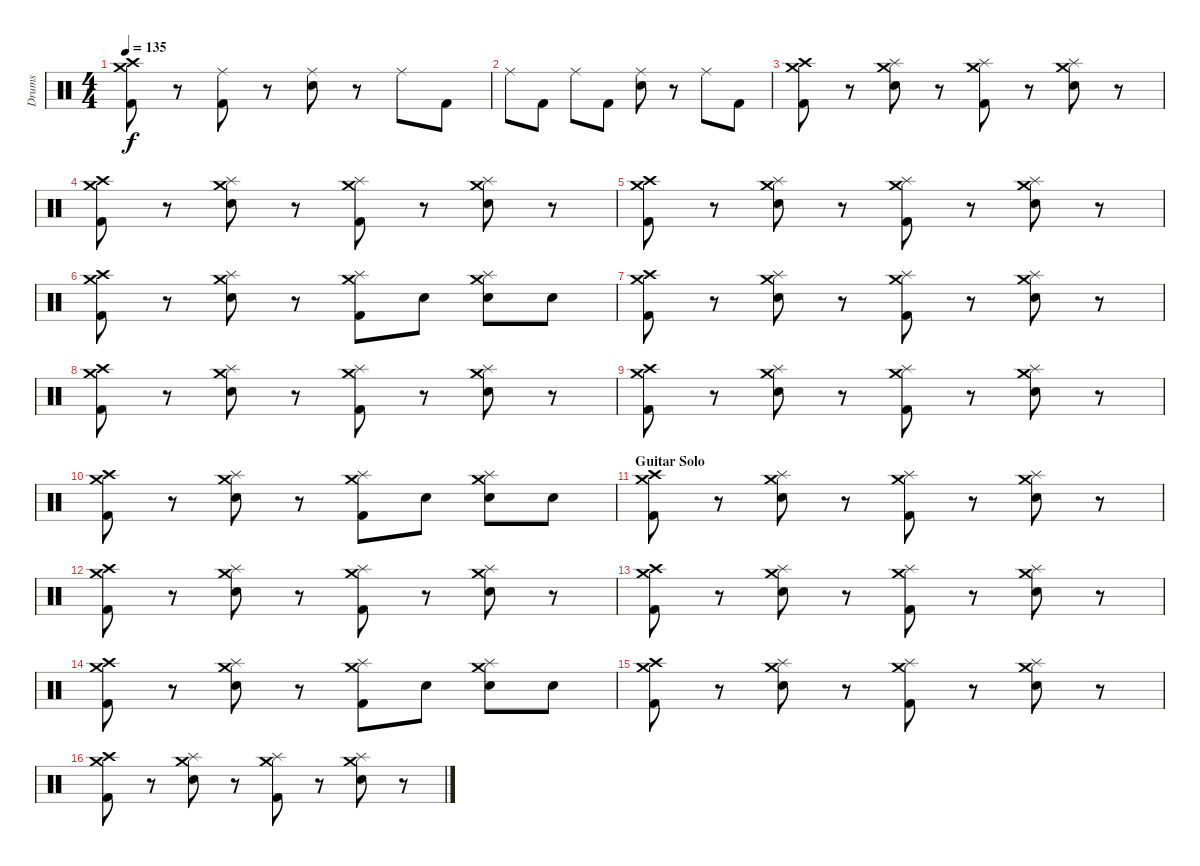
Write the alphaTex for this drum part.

\track ("Drums" "Drums") {instrument percussion}
\staff {score}
\articulation defaults
\ts (4 4)
\tempo 135
\clef neutral
\ks c
("Crash medium (hit)" "Crash high (hit)" "Kick (hit) 2").8{dy f} r.8 ("Ride (middle)" "Kick (hit) 2").8 r.8 ("Ride (middle)" "Snare (hit) 2").8 r.8 "Ride (middle)".8 "Kick (hit) 2".8 |
"Ride (middle)".8 "Kick (hit) 2".8 "Ride (middle)".8 "Kick (hit) 2".8 ("Ride (middle)" "Snare (hit) 2").8 r.8 "Ride (middle)".8 "Kick (hit) 2".8 |
("Crash medium (hit)" "Crash high (hit)" "Kick (hit) 2").8 r.8 ("Splash (hit)" "Crash medium (hit)" "Snare (hit) 2").8 r.8 ("Splash (hit)" "Crash medium (hit)" "Kick (hit) 2").8 r.8 ("Splash (hit)" "Crash medium (hit)" "Snare (hit) 2").8 r.8 |
("Crash medium (hit)" "Crash high (hit)" "Kick (hit) 2").8 r.8 ("Splash (hit)" "Crash medium (hit)" "Snare (hit) 2").8 r.8 ("Splash (hit)" "Crash medium (hit)" "Kick (hit) 2").8 r.8 ("Splash (hit)" "Crash medium (hit)" "Snare (hit) 2").8 r.8 |
("Crash medium (hit)" "Crash high (hit)" "Kick (hit) 2").8 r.8 ("Splash (hit)" "Crash medium (hit)" "Snare (hit) 2").8 r.8 ("Splash (hit)" "Crash medium (hit)" "Kick (hit) 2").8 r.8 ("Splash (hit)" "Crash medium (hit)" "Snare (hit) 2").8 r.8 |
("Crash medium (hit)" "Crash high (hit)" "Kick (hit) 2").8 r.8 ("Splash (hit)" "Crash medium (hit)" "Snare (hit) 2").8 r.8 ("Splash (hit)" "Crash medium (hit)" "Kick (hit) 2").8 "Snare (hit) 2".8 ("Splash (hit)" "Crash medium (hit)" "Snare (hit) 2").8 "Snare (hit) 2".8 |
("Crash medium (hit)" "Crash high (hit)" "Kick (hit) 2").8 r.8 ("Splash (hit)" "Crash medium (hit)" "Snare (hit) 2").8 r.8 ("Splash (hit)" "Crash medium (hit)" "Kick (hit) 2").8 r.8 ("Splash (hit)" "Crash medium (hit)" "Snare (hit) 2").8 r.8 |
("Crash medium (hit)" "Crash high (hit)" "Kick (hit) 2").8 r.8 ("Splash (hit)" "Crash medium (hit)" "Snare (hit) 2").8 r.8 ("Splash (hit)" "Crash medium (hit)" "Kick (hit) 2").8 r.8 ("Splash (hit)" "Crash medium (hit)" "Snare (hit) 2").8 r.8 |
("Crash medium (hit)" "Crash high (hit)" "Kick (hit) 2").8 r.8 ("Splash (hit)" "Crash medium (hit)" "Snare (hit) 2").8 r.8 ("Splash (hit)" "Crash medium (hit)" "Kick (hit) 2").8 r.8 ("Splash (hit)" "Crash medium (hit)" "Snare (hit) 2").8 r.8 |
("Crash medium (hit)" "Crash high (hit)" "Kick (hit) 2").8 r.8 ("Splash (hit)" "Crash medium (hit)" "Snare (hit) 2").8 r.8 ("Splash (hit)" "Crash medium (hit)" "Kick (hit) 2").8 "Snare (hit) 2".8 ("Splash (hit)" "Crash medium (hit)" "Snare (hit) 2").8 "Snare (hit) 2".8 |
\section ("" "Guitar Solo")
("Crash medium (hit)" "Crash high (hit)" "Kick (hit) 2").8 r.8 ("Splash (hit)" "Crash medium (hit)" "Snare (hit) 2").8 r.8 ("Splash (hit)" "Crash medium (hit)" "Kick (hit) 2").8 r.8 ("Splash (hit)" "Crash medium (hit)" "Snare (hit) 2").8 r.8 |
("Crash medium (hit)" "Crash high (hit)" "Kick (hit) 2").8 r.8 ("Splash (hit)" "Crash medium (hit)" "Snare (hit) 2").8 r.8 ("Splash (hit)" "Crash medium (hit)" "Kick (hit) 2").8 r.8 ("Splash (hit)" "Crash medium (hit)" "Snare (hit) 2").8 r.8 |
("Crash medium (hit)" "Crash high (hit)" "Kick (hit) 2").8 r.8 ("Splash (hit)" "Crash medium (hit)" "Snare (hit) 2").8 r.8 ("Splash (hit)" "Crash medium (hit)" "Kick (hit) 2").8 r.8 ("Splash (hit)" "Crash medium (hit)" "Snare (hit) 2").8 r.8 |
("Crash medium (hit)" "Crash high (hit)" "Kick (hit) 2").8 r.8 ("Splash (hit)" "Crash medium (hit)" "Snare (hit) 2").8 r.8 ("Splash (hit)" "Crash medium (hit)" "Kick (hit) 2").8 "Snare (hit) 2".8 ("Splash (hit)" "Crash medium (hit)" "Snare (hit) 2").8 "Snare (hit) 2".8 |
("Crash medium (hit)" "Crash high (hit)" "Kick (hit) 2").8 r.8 ("Splash (hit)" "Crash medium (hit)" "Snare (hit) 2").8 r.8 ("Splash (hit)" "Crash medium (hit)" "Kick (hit) 2").8 r.8 ("Splash (hit)" "Crash medium (hit)" "Snare (hit) 2").8 r.8 |
("Crash medium (hit)" "Crash high (hit)" "Kick (hit) 2").8 r.8 ("Splash (hit)" "Crash medium (hit)" "Snare (hit) 2").8 r.8 ("Splash (hit)" "Crash medium (hit)" "Kick (hit) 2").8 r.8 ("Splash (hit)" "Crash medium (hit)" "Snare (hit) 2").8 r.8
